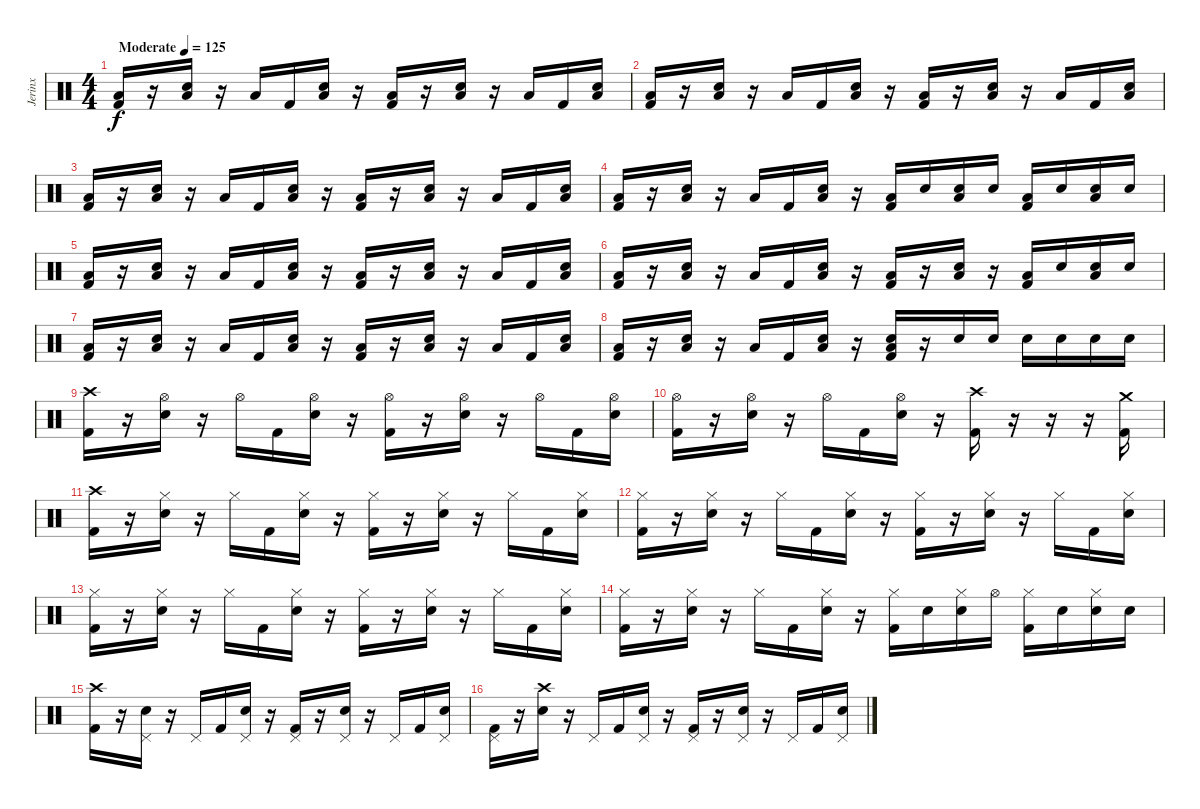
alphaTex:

\track ("Jerinx" "Jerinx") {instrument percussion}
\staff {score}
\articulation defaults
\ts (4 4)
\tempo (125 "Moderate")
\clef neutral
\ks c
("Kick (hit) 2" "Low Floor Tom (hit)").16{dy f} r.16 ("Electric Snare (hit)" "Low Floor Tom (hit)").16 r.16 "Low Floor Tom (hit)".16 "Kick (hit) 2".16 ("Electric Snare (hit)" "Low Floor Tom (hit)").16 r.16 ("Kick (hit) 2" "Low Floor Tom (hit)").16 r.16 ("Electric Snare (hit)" "Low Floor Tom (hit)").16 r.16 "Low Floor Tom (hit)".16 "Kick (hit) 2".16 ("Electric Snare (hit)" "Low Floor Tom (hit)").16 |
("Kick (hit) 2" "Low Floor Tom (hit)").16 r.16 ("Electric Snare (hit)" "Low Floor Tom (hit)").16 r.16 "Low Floor Tom (hit)".16 "Kick (hit) 2".16 ("Electric Snare (hit)" "Low Floor Tom (hit)").16 r.16 ("Kick (hit) 2" "Low Floor Tom (hit)").16 r.16 ("Electric Snare (hit)" "Low Floor Tom (hit)").16 r.16 "Low Floor Tom (hit)".16 "Kick (hit) 2".16 ("Electric Snare (hit)" "Low Floor Tom (hit)").16 |
("Kick (hit) 2" "Low Floor Tom (hit)").16 r.16 ("Electric Snare (hit)" "Low Floor Tom (hit)").16 r.16 "Low Floor Tom (hit)".16 "Kick (hit) 2".16 ("Electric Snare (hit)" "Low Floor Tom (hit)").16 r.16 ("Kick (hit) 2" "Low Floor Tom (hit)").16 r.16 ("Electric Snare (hit)" "Low Floor Tom (hit)").16 r.16 "Low Floor Tom (hit)".16 "Kick (hit) 2".16 ("Electric Snare (hit)" "Low Floor Tom (hit)").16 |
("Kick (hit) 2" "Low Floor Tom (hit)").16 r.16 ("Electric Snare (hit)" "Low Floor Tom (hit)").16 r.16 "Low Floor Tom (hit)".16 "Kick (hit) 2".16 ("Electric Snare (hit)" "Low Floor Tom (hit)").16 r.16 ("Kick (hit) 2" "Low Floor Tom (hit)").16 "Electric Snare (hit)".16 ("Electric Snare (hit)" "Low Floor Tom (hit)").16 "Electric Snare (hit)".16 ("Kick (hit) 2" "Low Floor Tom (hit)").16 "Electric Snare (hit)".16 ("Electric Snare (hit)" "Low Floor Tom (hit)").16 "Electric Snare (hit)".16 |
("Kick (hit) 2" "Low Floor Tom (hit)").16 r.16 ("Electric Snare (hit)" "Low Floor Tom (hit)").16 r.16 "Low Floor Tom (hit)".16 "Kick (hit) 2".16 ("Electric Snare (hit)" "Low Floor Tom (hit)").16 r.16 ("Kick (hit) 2" "Low Floor Tom (hit)").16 r.16 ("Electric Snare (hit)" "Low Floor Tom (hit)").16 r.16 "Low Floor Tom (hit)".16 "Kick (hit) 2".16 ("Electric Snare (hit)" "Low Floor Tom (hit)").16 |
("Kick (hit) 2" "Low Floor Tom (hit)").16 r.16 ("Electric Snare (hit)" "Low Floor Tom (hit)").16 r.16 "Low Floor Tom (hit)".16 "Kick (hit) 2".16 ("Electric Snare (hit)" "Low Floor Tom (hit)").16 r.16 ("Kick (hit) 2" "Low Floor Tom (hit)").16 r.16 ("Electric Snare (hit)" "Low Floor Tom (hit)").16 r.16 ("Kick (hit) 2" "Low Floor Tom (hit)").16 "Electric Snare (hit)".16 ("Electric Snare (hit)" "Low Floor Tom (hit)").16 "Electric Snare (hit)".16 |
("Kick (hit) 2" "Low Floor Tom (hit)").16 r.16 ("Electric Snare (hit)" "Low Floor Tom (hit)").16 r.16 "Low Floor Tom (hit)".16 "Kick (hit) 2".16 ("Electric Snare (hit)" "Low Floor Tom (hit)").16 r.16 ("Kick (hit) 2" "Low Floor Tom (hit)").16 r.16 ("Electric Snare (hit)" "Low Floor Tom (hit)").16 r.16 "Low Floor Tom (hit)".16 "Kick (hit) 2".16 ("Electric Snare (hit)" "Low Floor Tom (hit)").16 |
("Kick (hit) 2" "Low Floor Tom (hit)").16 r.16 ("Electric Snare (hit)" "Low Floor Tom (hit)").16 r.16 "Low Floor Tom (hit)".16 "Kick (hit) 2".16 ("Electric Snare (hit)" "Low Floor Tom (hit)").16 r.16 ("Kick (hit) 2" "Electric Snare (hit)" "Low Floor Tom (hit)").16 r.16 "Electric Snare (hit)".16 "Electric Snare (hit)".16 "Electric Snare (hit)".16 "Electric Snare (hit)".16 "Electric Snare (hit)".16 "Electric Snare (hit)".16 |
("Kick (hit) 2" "Crash high (hit)").16 r.16 ("Electric Snare (hit)" "Hi-Hat (open)").16 r.16 "Hi-Hat (open)".16 "Kick (hit) 2".16 ("Electric Snare (hit)" "Hi-Hat (open)").16 r.16 ("Kick (hit) 2" "Hi-Hat (open)").16 r.16 ("Electric Snare (hit)" "Hi-Hat (open)").16 r.16 "Hi-Hat (open)".16 "Kick (hit) 2".16 ("Electric Snare (hit)" "Hi-Hat (open)").16 |
("Kick (hit) 2" "Hi-Hat (open)").16 r.16 ("Electric Snare (hit)" "Hi-Hat (open)").16 r.16 "Hi-Hat (open)".16 "Kick (hit) 2".16 ("Electric Snare (hit)" "Hi-Hat (open)").16 r.16 ("Kick (hit) 2" "Crash high (hit)").16 r.16 r.16 r.16 ("Kick (hit) 2" "Crash medium (hit)").16 |
("Kick (hit) 2" "Crash high (hit)").16 r.16 ("Electric Snare (hit)" "Hi-Hat (closed)").16 r.16 "Hi-Hat (closed)".16 "Kick (hit) 2".16 ("Electric Snare (hit)" "Hi-Hat (closed)").16 r.16 ("Kick (hit) 2" "Hi-Hat (closed)").16 r.16 ("Electric Snare (hit)" "Hi-Hat (closed)").16 r.16 "Hi-Hat (closed)".16 "Kick (hit) 2".16 ("Electric Snare (hit)" "Hi-Hat (closed)").16 |
("Kick (hit) 2" "Hi-Hat (closed)").16 r.16 ("Electric Snare (hit)" "Hi-Hat (closed)").16 r.16 "Hi-Hat (closed)".16 "Kick (hit) 2".16 ("Electric Snare (hit)" "Hi-Hat (closed)").16 r.16 ("Kick (hit) 2" "Hi-Hat (closed)").16 r.16 ("Electric Snare (hit)" "Hi-Hat (closed)").16 r.16 "Hi-Hat (closed)".16 "Kick (hit) 2".16 ("Electric Snare (hit)" "Hi-Hat (closed)").16 |
("Kick (hit) 2" "Hi-Hat (closed)").16 r.16 ("Electric Snare (hit)" "Hi-Hat (closed)").16 r.16 "Hi-Hat (closed)".16 "Kick (hit) 2".16 ("Electric Snare (hit)" "Hi-Hat (closed)").16 r.16 ("Kick (hit) 2" "Hi-Hat (closed)").16 r.16 ("Electric Snare (hit)" "Hi-Hat (closed)").16 r.16 "Hi-Hat (closed)".16 "Kick (hit) 2".16 ("Electric Snare (hit)" "Hi-Hat (closed)").16 |
("Kick (hit) 2" "Hi-Hat (closed)").16 r.16 ("Electric Snare (hit)" "Hi-Hat (closed)").16 r.16 "Hi-Hat (closed)".16 "Kick (hit) 2".16 ("Electric Snare (hit)" "Hi-Hat (closed)").16 r.16 ("Kick (hit) 2" "Hi-Hat (closed)").16 "Electric Snare (hit)".16 ("Electric Snare (hit)" "Hi-Hat (closed)").16 "Hi-Hat (open)".16 ("Kick (hit) 2" "Hi-Hat (closed)").16 "Electric Snare (hit)".16 ("Electric Snare (hit)" "Hi-Hat (closed)").16 "Electric Snare (hit)".16 |
("Kick (hit) 2" "Crash high (hit)").16 r.16 ("Electric Snare (hit)" "Pedal Hi-Hat (hit)").16 r.16 "Pedal Hi-Hat (hit)".16 "Kick (hit) 2".16 ("Electric Snare (hit)" "Pedal Hi-Hat (hit)").16 r.16 ("Kick (hit) 2" "Pedal Hi-Hat (hit)").16 r.16 ("Electric Snare (hit)" "Pedal Hi-Hat (hit)").16 r.16 "Pedal Hi-Hat (hit)".16 "Kick (hit) 2".16 ("Electric Snare (hit)" "Pedal Hi-Hat (hit)").16 |
("Kick (hit) 2" "Pedal Hi-Hat (hit)").16 r.16 ("Electric Snare (hit)" "Crash high (hit)").16 r.16 "Pedal Hi-Hat (hit)".16 "Kick (hit) 2".16 ("Electric Snare (hit)" "Pedal Hi-Hat (hit)").16 r.16 ("Kick (hit) 2" "Pedal Hi-Hat (hit)").16 r.16 ("Electric Snare (hit)" "Pedal Hi-Hat (hit)").16 r.16 "Pedal Hi-Hat (hit)".16 "Kick (hit) 2".16 ("Electric Snare (hit)" "Pedal Hi-Hat (hit)").16
